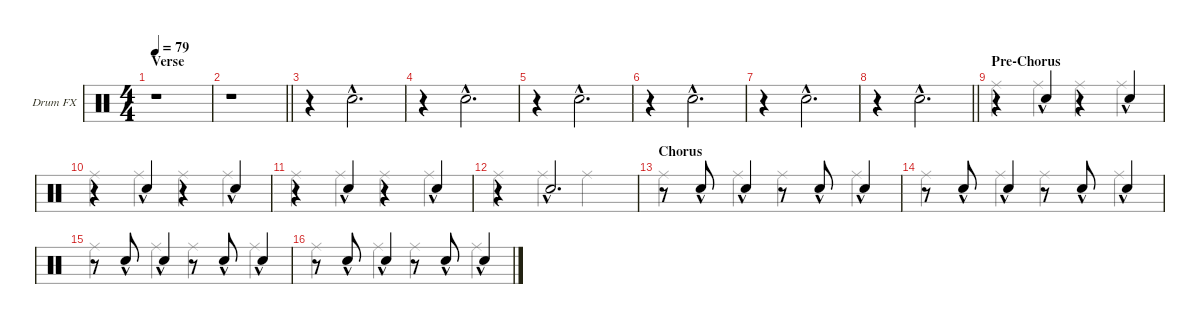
\defaultSystemsLayout 4
\hideDynamics
\bracketExtendMode groupsimilarinstruments
\firstSystemTrackNameOrientation horizontal
\otherSystemsTrackNameOrientation horizontal
\track ("Drumkit FX" "Drum FX") {multiBarRest instrument percussion}
\staff {score}
\articulation defaults
\voice
\ts (4 4)
\section ("" "Verse")
\tempo 79
\clef neutral
\ks c
r.1{dy fff} |
\barLineRight lightlight
r.1 |
r.4 "Snare (hit) 2"{hac}.2{d} |
r.4 "Snare (hit) 2"{hac}.2{d} |
r.4 "Snare (hit) 2"{hac}.2{d} |
r.4 "Snare (hit) 2"{hac}.2{d} |
r.4 "Snare (hit) 2"{hac}.2{d} |
\barLineRight lightlight
r.4 "Snare (hit) 2"{hac}.2{d} |
\section ("" "Pre-Chorus")
r.4 "Snare (hit) 2"{hac}.4 r.4 "Snare (hit) 2"{hac}.4 |
r.4 "Snare (hit) 2"{hac}.4 r.4 "Snare (hit) 2"{hac}.4 |
r.4 "Snare (hit) 2"{hac}.4 r.4 "Snare (hit) 2"{hac}.4 |
r.4 "Snare (hit) 2"{hac}.2{d} |
\section ("" "Chorus")
r.8 "Snare (hit) 2"{hac}.8{dy mf} "Snare (hit) 2"{hac}.4{dy fff} r.8 "Snare (hit) 2"{hac}.8{dy mf} "Snare (hit) 2"{hac}.4{dy fff} |
r.8 "Snare (hit) 2"{hac}.8{dy mf} "Snare (hit) 2"{hac}.4{dy fff} r.8 "Snare (hit) 2"{hac}.8{dy mf} "Snare (hit) 2"{hac}.4{dy fff} |
r.8 "Snare (hit) 2"{hac}.8{dy mf} "Snare (hit) 2"{hac}.4{dy fff} r.8 "Snare (hit) 2"{hac}.8{dy mf} "Snare (hit) 2"{hac}.4{dy fff} |
r.8 "Snare (hit) 2"{hac}.8{dy mf} "Snare (hit) 2"{hac}.4{dy fff} r.8 "Snare (hit) 2"{hac}.8{dy mf} "Snare (hit) 2"{hac}.4{dy fff}
\voice
\clef neutral
\ottava regular
\simile none
\ks c
|
\barLineRight lightlight
|
|
|
|
|
|
\barLineRight lightlight
|
"Ride (middle)".4 "Ride (middle)".4 "Ride (middle)".4 "Ride (middle)".4 |
"Ride (middle)".4 "Ride (middle)".4 "Ride (middle)".4 "Ride (middle)".4 |
"Ride (middle)".4 "Ride (middle)".4 "Ride (middle)".4 "Ride (middle)".4 |
"Ride (middle)".4 "Ride (middle)".4 "Ride (middle)".2 |
"Ride (middle)".4 "Ride (middle)".4 "Ride (middle)".4 "Ride (middle)".4 |
"Ride (middle)".4 "Ride (middle)".4 "Ride (middle)".4 "Ride (middle)".4 |
"Ride (middle)".4 "Ride (middle)".4 "Ride (middle)".4 "Ride (middle)".4 |
"Ride (middle)".4 "Ride (middle)".4 "Ride (middle)".4 "Ride (middle)".4
